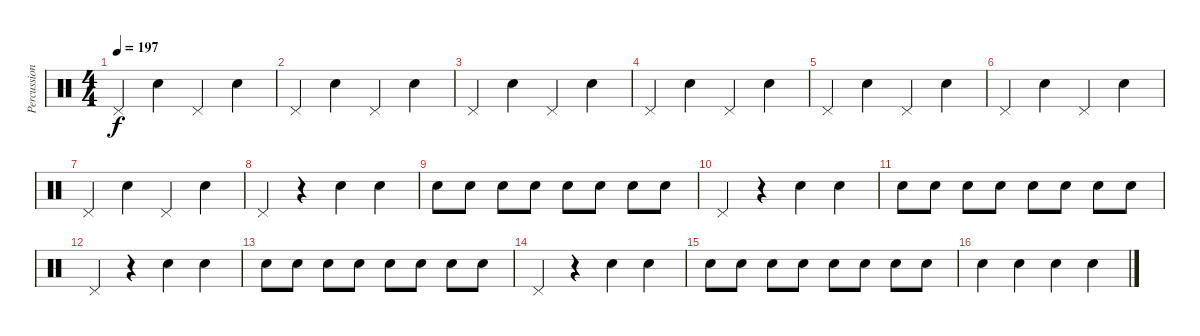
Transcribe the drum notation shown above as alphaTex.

\track ("Percussion" "Percussion") {instrument percussion}
\staff {score}
\articulation defaults
\ts (4 4)
\tempo 197
\clef neutral
\ks c "Pedal Hi-Hat (hit)".4{dy f} "Electric Snare (hit)".4 "Pedal Hi-Hat (hit)".4 "Electric Snare (hit)".4
|
"Pedal Hi-Hat (hit)".4 "Electric Snare (hit)".4 "Pedal Hi-Hat (hit)".4 "Electric Snare (hit)".4 |
"Pedal Hi-Hat (hit)".4 "Electric Snare (hit)".4 "Pedal Hi-Hat (hit)".4 "Electric Snare (hit)".4 |
"Pedal Hi-Hat (hit)".4 "Electric Snare (hit)".4 "Pedal Hi-Hat (hit)".4 "Electric Snare (hit)".4 |
"Pedal Hi-Hat (hit)".4 "Electric Snare (hit)".4 "Pedal Hi-Hat (hit)".4 "Electric Snare (hit)".4 |
"Pedal Hi-Hat (hit)".4 "Electric Snare (hit)".4 "Pedal Hi-Hat (hit)".4 "Electric Snare (hit)".4 |
"Pedal Hi-Hat (hit)".4 "Electric Snare (hit)".4 "Pedal Hi-Hat (hit)".4 "Electric Snare (hit)".4 |
"Pedal Hi-Hat (hit)".4 r.4 "Electric Snare (hit)".4 "Electric Snare (hit)".4 |
"Electric Snare (hit)".8 "Electric Snare (hit)".8 "Electric Snare (hit)".8 "Electric Snare (hit)".8 "Electric Snare (hit)".8 "Electric Snare (hit)".8 "Electric Snare (hit)".8 "Electric Snare (hit)".8 |
"Pedal Hi-Hat (hit)".4 r.4 "Electric Snare (hit)".4 "Electric Snare (hit)".4 |
"Electric Snare (hit)".8 "Electric Snare (hit)".8 "Electric Snare (hit)".8 "Electric Snare (hit)".8 "Electric Snare (hit)".8 "Electric Snare (hit)".8 "Electric Snare (hit)".8 "Electric Snare (hit)".8 |
"Pedal Hi-Hat (hit)".4 r.4 "Electric Snare (hit)".4 "Electric Snare (hit)".4 |
"Electric Snare (hit)".8 "Electric Snare (hit)".8 "Electric Snare (hit)".8 "Electric Snare (hit)".8 "Electric Snare (hit)".8 "Electric Snare (hit)".8 "Electric Snare (hit)".8 "Electric Snare (hit)".8 |
"Pedal Hi-Hat (hit)".4 r.4 "Electric Snare (hit)".4 "Electric Snare (hit)".4 |
"Electric Snare (hit)".8 "Electric Snare (hit)".8 "Electric Snare (hit)".8 "Electric Snare (hit)".8 "Electric Snare (hit)".8 "Electric Snare (hit)".8 "Electric Snare (hit)".8 "Electric Snare (hit)".8 |
"Electric Snare (hit)".4 "Electric Snare (hit)".4 "Electric Snare (hit)".4 "Electric Snare (hit)".4
